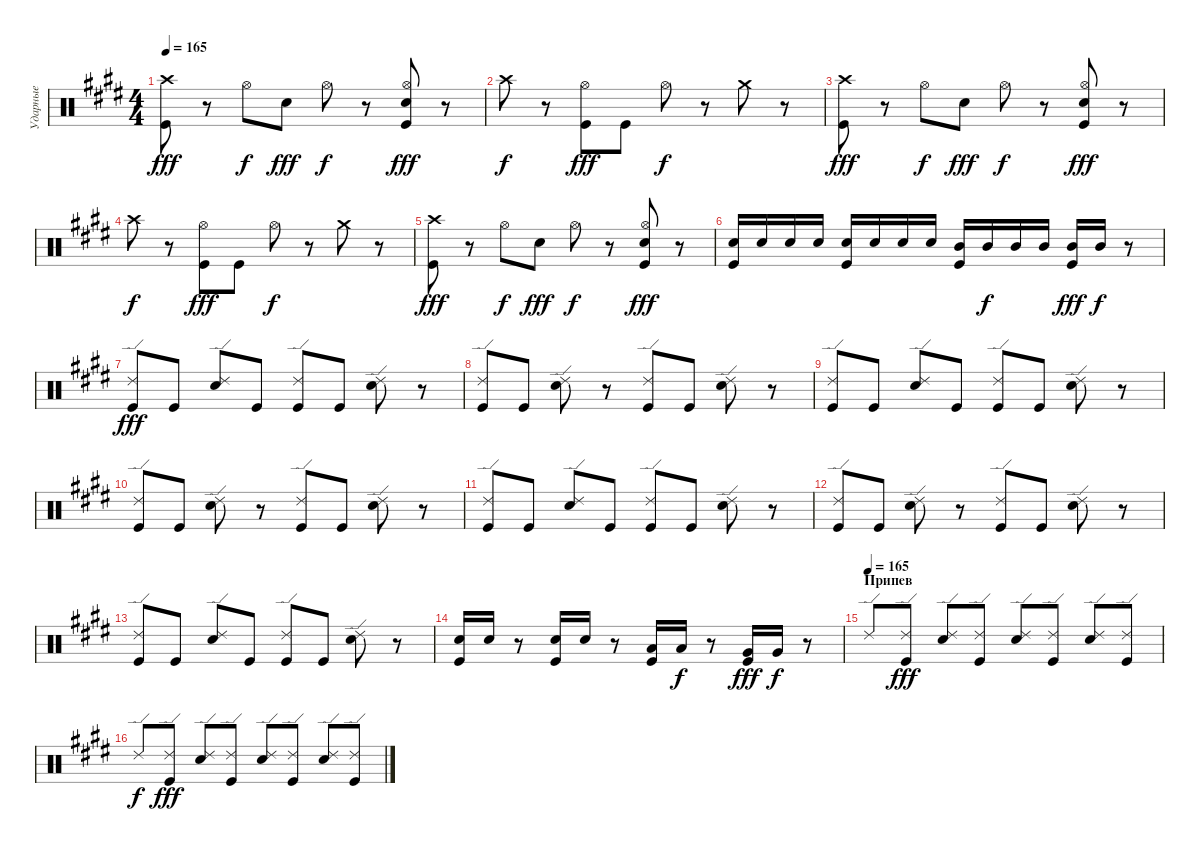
\track ("Ударные" "Ударные") {instrument percussion}
\staff {score}
\articulation defaults
\ts (4 4)
\tempo 165
\clef neutral
\ks e
("Crash high (hit)" "Kick (hit)").8{dy fff} r.8 "Hi-Hat (open)".8{dy f} "Snare (hit) 2".8{dy fff} "Hi-Hat (open)".8{dy f} r.8 ("Hi-Hat (open)" "Snare (hit) 2" "Kick (hit)").8{dy fff} r.8 |
"Crash high (hit)".8{dy f} r.8 ("Hi-Hat (open)" "Kick (hit)").8{dy fff} "Kick (hit)".8 "Hi-Hat (open)".8{dy f} r.8 "Crash medium (hit)".8 r.8 |
("Crash high (hit)" "Kick (hit)").8{dy fff} r.8 "Hi-Hat (open)".8{dy f} "Snare (hit) 2".8{dy fff} "Hi-Hat (open)".8{dy f} r.8 ("Hi-Hat (open)" "Snare (hit) 2" "Kick (hit)").8{dy fff} r.8 |
"Crash high (hit)".8{dy f} r.8 ("Hi-Hat (open)" "Kick (hit)").8{dy fff} "Kick (hit)".8 "Hi-Hat (open)".8{dy f} r.8 "Crash medium (hit)".8 r.8 |
("Crash high (hit)" "Kick (hit)").8{dy fff} r.8 "Hi-Hat (open)".8{dy f} "Snare (hit) 2".8{dy fff} "Hi-Hat (open)".8{dy f} r.8 ("Hi-Hat (open)" "Snare (hit) 2" "Kick (hit)").8{dy fff} r.8 |
("Snare (hit) 2" "Kick (hit)").16 "Snare (hit) 2".16 "Snare (hit) 2".16 "Snare (hit) 2".16 ("Snare (hit) 2" "Kick (hit)").16 "Snare (hit) 2".16 "Snare (hit) 2".16 "Snare (hit) 2".16 ("Mid Tom (hit)" "Kick (hit)").16 "Mid Tom (hit)".16{dy f} "Mid Tom (hit)".16 "Mid Tom (hit)".16 ("Mid Tom (hit)" "Kick (hit)").16{dy fff} "Mid Tom (hit)".16{dy f} r.8 |
("Ride (edge) 2" "Kick (hit)").8{dy fff} "Kick (hit)".8 ("Ride (edge) 2" "Snare (hit) 2").8 "Kick (hit)".8 ("Ride (edge) 2" "Kick (hit)").8 "Kick (hit)".8 ("Ride (edge) 2" "Snare (hit) 2").8 r.8 |
("Ride (edge) 2" "Kick (hit)").8 "Kick (hit)".8 ("Ride (edge) 2" "Snare (hit) 2").8 r.8 ("Ride (edge) 2" "Kick (hit)").8 "Kick (hit)".8 ("Ride (edge) 2" "Snare (hit) 2").8 r.8 |
("Ride (edge) 2" "Kick (hit)").8 "Kick (hit)".8 ("Ride (edge) 2" "Snare (hit) 2").8 "Kick (hit)".8 ("Ride (edge) 2" "Kick (hit)").8 "Kick (hit)".8 ("Ride (edge) 2" "Snare (hit) 2").8 r.8 |
("Ride (edge) 2" "Kick (hit)").8 "Kick (hit)".8 ("Ride (edge) 2" "Snare (hit) 2").8 r.8 ("Ride (edge) 2" "Kick (hit)").8 "Kick (hit)".8 ("Ride (edge) 2" "Snare (hit) 2").8 r.8 |
("Ride (edge) 2" "Kick (hit)").8 "Kick (hit)".8 ("Ride (edge) 2" "Snare (hit) 2").8 "Kick (hit)".8 ("Ride (edge) 2" "Kick (hit)").8 "Kick (hit)".8 ("Ride (edge) 2" "Snare (hit) 2").8 r.8 |
("Ride (edge) 2" "Kick (hit)").8 "Kick (hit)".8 ("Ride (edge) 2" "Snare (hit) 2").8 r.8 ("Ride (edge) 2" "Kick (hit)").8 "Kick (hit)".8 ("Ride (edge) 2" "Snare (hit) 2").8 r.8 |
("Ride (edge) 2" "Kick (hit)").8 "Kick (hit)".8 ("Ride (edge) 2" "Snare (hit) 2").8 "Kick (hit)".8 ("Ride (edge) 2" "Kick (hit)").8 "Kick (hit)".8 ("Ride (edge) 2" "Snare (hit) 2").8 r.8 |
("Snare (hit) 2" "Kick (hit)").16 "Snare (hit) 2".16 r.8 ("Snare (hit) 2" "Kick (hit)").16 "Snare (hit) 2".16 r.8 ("Low Tom (hit)" "Kick (hit)").16 "Low Tom (hit)".16{dy f} r.8 ("Very Low Tom (hit)" "Kick (hit)").16{dy fff} "Very Low Tom (hit)".16{dy f} r.8 |
\section ("" "Припев")
\tempo (165)
"Ride (edge) 2".8 ("Ride (edge) 2" "Kick (hit)").8{dy fff} ("Ride (edge) 2" "Snare (hit) 2").8 ("Ride (edge) 2" "Kick (hit)").8 ("Ride (edge) 2" "Snare (hit) 2").8 ("Ride (edge) 2" "Kick (hit)").8 ("Ride (edge) 2" "Snare (hit) 2").8 ("Ride (edge) 2" "Kick (hit)").8 |
"Ride (edge) 2".8{dy f} ("Ride (edge) 2" "Kick (hit)").8{dy fff} ("Ride (edge) 2" "Snare (hit) 2").8 ("Ride (edge) 2" "Kick (hit)").8 ("Ride (edge) 2" "Snare (hit) 2").8 ("Ride (edge) 2" "Kick (hit)").8 ("Ride (edge) 2" "Snare (hit) 2").8 ("Ride (edge) 2" "Kick (hit)").8
